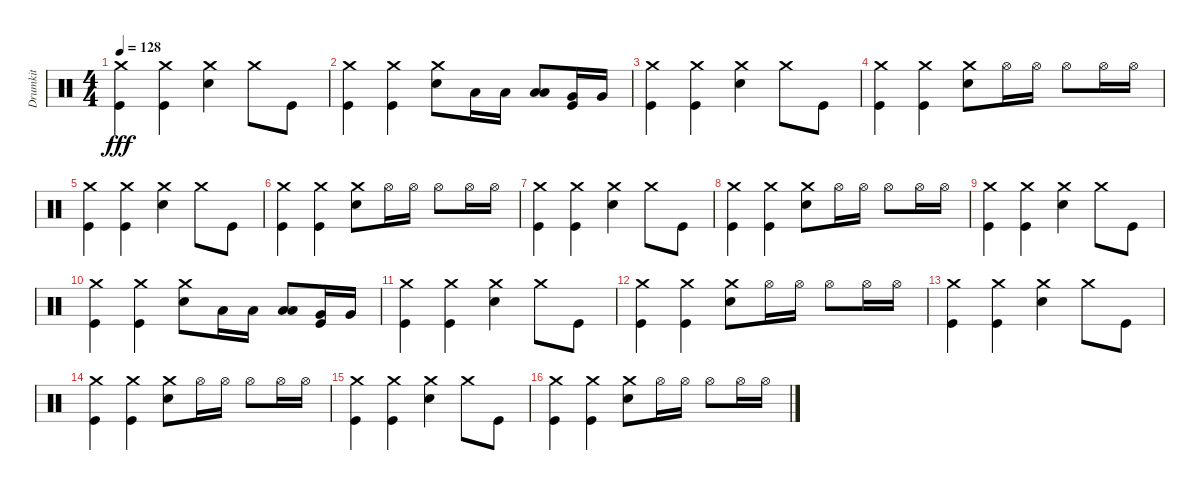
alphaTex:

\track ("Drumkit" "Drumkit") {instrument percussion}
\staff {score}
\articulation defaults
\ts (4 4)
\tempo 128
\clef neutral
\ks c
("Crash medium (hit)" "Kick (hit)").4{dy fff} ("Crash medium (hit)" "Kick (hit)").4 ("Crash medium (hit)" "Snare (hit) 2").4 "Crash medium (hit)".8 "Kick (hit)".8 |
("Crash medium (hit)" "Kick (hit)").4 ("Crash medium (hit)" "Kick (hit)").4 ("Crash medium (hit)" "Snare (hit) 2").8 "Low Tom (hit)".16 "Low Tom (hit)".16 ("Low Tom (hit)" "Low Floor Tom (hit)").8 ("Very Low Tom (hit)" "Kick (hit)").16 "Very Low Tom (hit)".16 |
("Crash medium (hit)" "Kick (hit)").4 ("Crash medium (hit)" "Kick (hit)").4 ("Crash medium (hit)" "Snare (hit) 2").4 "Crash medium (hit)".8 "Kick (hit)".8 |
("Crash medium (hit)" "Kick (hit)").4 ("Crash medium (hit)" "Kick (hit)").4 ("Crash medium (hit)" "Snare (hit) 2").8 "Hi-Hat (open)".16 "Hi-Hat (open)".16 "Hi-Hat (open)".8 "Hi-Hat (open)".16 "Hi-Hat (open)".16 |
("Crash medium (hit)" "Kick (hit)").4 ("Crash medium (hit)" "Kick (hit)").4 ("Crash medium (hit)" "Snare (hit) 2").4 "Crash medium (hit)".8 "Kick (hit)".8 |
("Crash medium (hit)" "Kick (hit)").4 ("Crash medium (hit)" "Kick (hit)").4 ("Crash medium (hit)" "Snare (hit) 2").8 "Hi-Hat (open)".16 "Hi-Hat (open)".16 "Hi-Hat (open)".8 "Hi-Hat (open)".16 "Hi-Hat (open)".16 |
("Crash medium (hit)" "Kick (hit)").4 ("Crash medium (hit)" "Kick (hit)").4 ("Crash medium (hit)" "Snare (hit) 2").4 "Crash medium (hit)".8 "Kick (hit)".8 |
("Crash medium (hit)" "Kick (hit)").4 ("Crash medium (hit)" "Kick (hit)").4 ("Crash medium (hit)" "Snare (hit) 2").8 "Hi-Hat (open)".16 "Hi-Hat (open)".16 "Hi-Hat (open)".8 "Hi-Hat (open)".16 "Hi-Hat (open)".16 |
("Crash medium (hit)" "Kick (hit)").4 ("Crash medium (hit)" "Kick (hit)").4 ("Crash medium (hit)" "Snare (hit) 2").4 "Crash medium (hit)".8 "Kick (hit)".8 |
("Crash medium (hit)" "Kick (hit)").4 ("Crash medium (hit)" "Kick (hit)").4 ("Crash medium (hit)" "Snare (hit) 2").8 "Low Tom (hit)".16 "Low Tom (hit)".16 ("Low Tom (hit)" "Low Floor Tom (hit)").8 ("Very Low Tom (hit)" "Kick (hit)").16 "Very Low Tom (hit)".16 |
("Crash medium (hit)" "Kick (hit)").4 ("Crash medium (hit)" "Kick (hit)").4 ("Crash medium (hit)" "Snare (hit) 2").4 "Crash medium (hit)".8 "Kick (hit)".8 |
("Crash medium (hit)" "Kick (hit)").4 ("Crash medium (hit)" "Kick (hit)").4 ("Crash medium (hit)" "Snare (hit) 2").8 "Hi-Hat (open)".16 "Hi-Hat (open)".16 "Hi-Hat (open)".8 "Hi-Hat (open)".16 "Hi-Hat (open)".16 |
("Crash medium (hit)" "Kick (hit)").4 ("Crash medium (hit)" "Kick (hit)").4 ("Crash medium (hit)" "Snare (hit) 2").4 "Crash medium (hit)".8 "Kick (hit)".8 |
("Crash medium (hit)" "Kick (hit)").4 ("Crash medium (hit)" "Kick (hit)").4 ("Crash medium (hit)" "Snare (hit) 2").8 "Hi-Hat (open)".16 "Hi-Hat (open)".16 "Hi-Hat (open)".8 "Hi-Hat (open)".16 "Hi-Hat (open)".16 |
("Crash medium (hit)" "Kick (hit)").4 ("Crash medium (hit)" "Kick (hit)").4 ("Crash medium (hit)" "Snare (hit) 2").4 "Crash medium (hit)".8 "Kick (hit)".8 |
("Crash medium (hit)" "Kick (hit)").4 ("Crash medium (hit)" "Kick (hit)").4 ("Crash medium (hit)" "Snare (hit) 2").8 "Hi-Hat (open)".16 "Hi-Hat (open)".16 "Hi-Hat (open)".8 "Hi-Hat (open)".16 "Hi-Hat (open)".16
